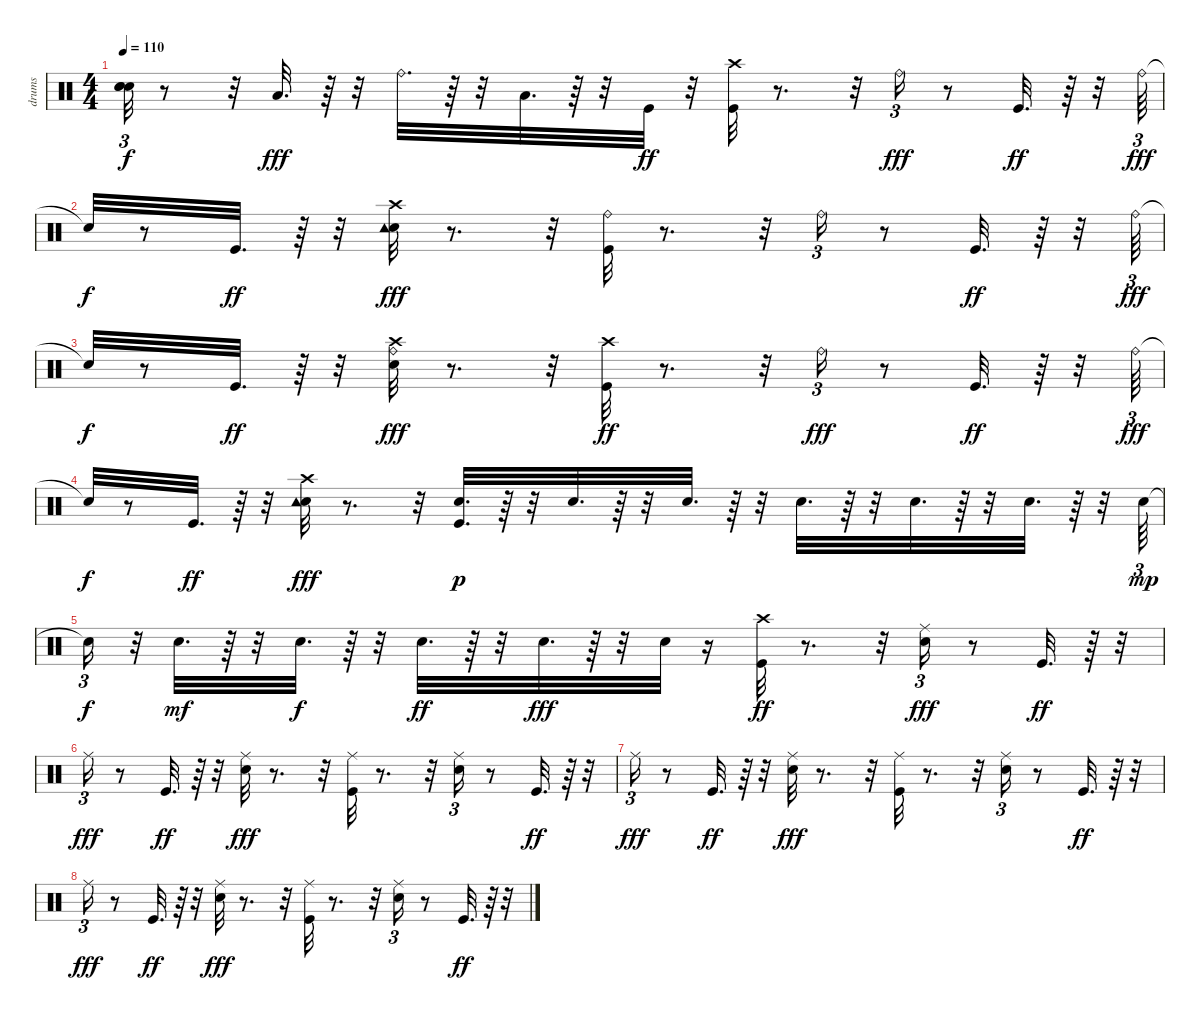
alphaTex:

\track ("drums    " "drums    ") {instrument percussion}
\staff {score}
\articulation defaults
\ts (4 4)
\tempo 110
\clef neutral
\ks c
("Snare (hit)"{t} "Snare (hit)"{t} "Snare (hit)"{t}).32{tu (3 2) dy f} r.8 r.32 "Low Tom (hit)".32{d dy fff} r.64 r.32 "Ride (bell)".32{d} r.64 r.32 "Low Floor Tom (hit)".32{d} r.64 r.32 "Kick (hit)".32{dy ff} r.32 ("Kick (hit)" "Crash high (hit)").32 r.8{d} r.32 "Ride (bell)".16{tu (3 2) dy fff} r.8 "Kick (hit)".32{d dy ff} r.64 r.32 "Ride (bell)".64{tu (3 2) dy fff} |
"Snare (hit)"{t}.32{dy f} r.8 "Kick (hit)".32{d dy ff} r.64 r.32 ("Snare (hit) 2" "Crash high (hit)" "Tambourine (hit)").32{dy fff} r.8{d} r.32 ("Kick (hit)" "Ride (bell)").32 r.8{d} r.32 "Ride (bell)".16{tu (3 2)} r.8 "Kick (hit)".32{d dy ff} r.64 r.32 "Ride (bell)".64{tu (3 2) dy fff} |
"Snare (hit)"{t}.32{dy f} r.8 "Kick (hit)".32{d dy ff} r.64 r.32 ("Snare (hit) 2" "Crash high (hit)" "Ride (bell)").32{dy fff} r.8{d} r.32 ("Kick (hit)" "Crash high (hit)").32{dy ff} r.8{d} r.32 "Ride (bell)".16{tu (3 2) dy fff} r.8 "Kick (hit)".32{d dy ff} r.64 r.32 "Ride (bell)".64{tu (3 2) dy fff} |
"Snare (hit)"{t}.32{dy f} r.8 "Kick (hit)".32{d dy ff} r.64 r.32 ("Snare (hit) 2" "Crash high (hit)" "Tambourine (hit)").32{dy fff} r.8{d} r.32 ("Kick (hit)" "Snare (hit) 2").32{d dy p} r.64 r.32 "Snare (hit) 2".32{d} r.64 r.32 "Snare (hit) 2".32{d} r.64 r.32 "Snare (hit) 2".32{d} r.64 r.32 "Snare (hit) 2".32{d} r.64 r.32 "Snare (hit) 2".32{d} r.64 r.32 "Snare (hit) 2".64{tu (3 2) dy mp} |
"Snare (hit)"{t}.16{tu (3 2) dy f} r.32 "Snare (hit) 2".32{d dy mf} r.64 r.32 "Snare (hit) 2".32{d dy f} r.64 r.32 "Snare (hit) 2".32{d dy ff} r.64 r.32 "Snare (hit) 2".32{d dy fff} r.64 r.32 "Snare (hit) 2".32 r.16 ("Kick (hit)" "Crash high (hit)").32{dy ff} r.8{d} r.32 ("Snare (hit) 2" "Ride (middle)").16{tu (3 2) dy fff} r.8 "Kick (hit)".32{d dy ff} r.64 r.32 |
"Ride (middle)".16{tu (3 2) dy fff} r.8 "Kick (hit)".32{d dy ff} r.64 r.32 ("Snare (hit) 2" "Ride (middle)").32{dy fff} r.8{d} r.32 ("Kick (hit)" "Ride (middle)").32 r.8{d} r.32 ("Snare (hit) 2" "Ride (middle)").16{tu (3 2)} r.8 "Kick (hit)".32{d dy ff} r.64 r.32 |
"Ride (middle)".16{tu (3 2) dy fff} r.8 "Kick (hit)".32{d dy ff} r.64 r.32 ("Snare (hit) 2" "Ride (middle)").32{dy fff} r.8{d} r.32 ("Kick (hit)" "Ride (middle)").32 r.8{d} r.32 ("Snare (hit) 2" "Ride (middle)").16{tu (3 2)} r.8 "Kick (hit)".32{d dy ff} r.64 r.32 |
"Ride (middle)".16{tu (3 2) dy fff} r.8 "Kick (hit)".32{d dy ff} r.64 r.32 ("Snare (hit) 2" "Ride (middle)").32{dy fff} r.8{d} r.32 ("Kick (hit)" "Ride (middle)").32 r.8{d} r.32 ("Snare (hit) 2" "Ride (middle)").16{tu (3 2)} r.8 "Kick (hit)".32{d dy ff} r.64 r.32
